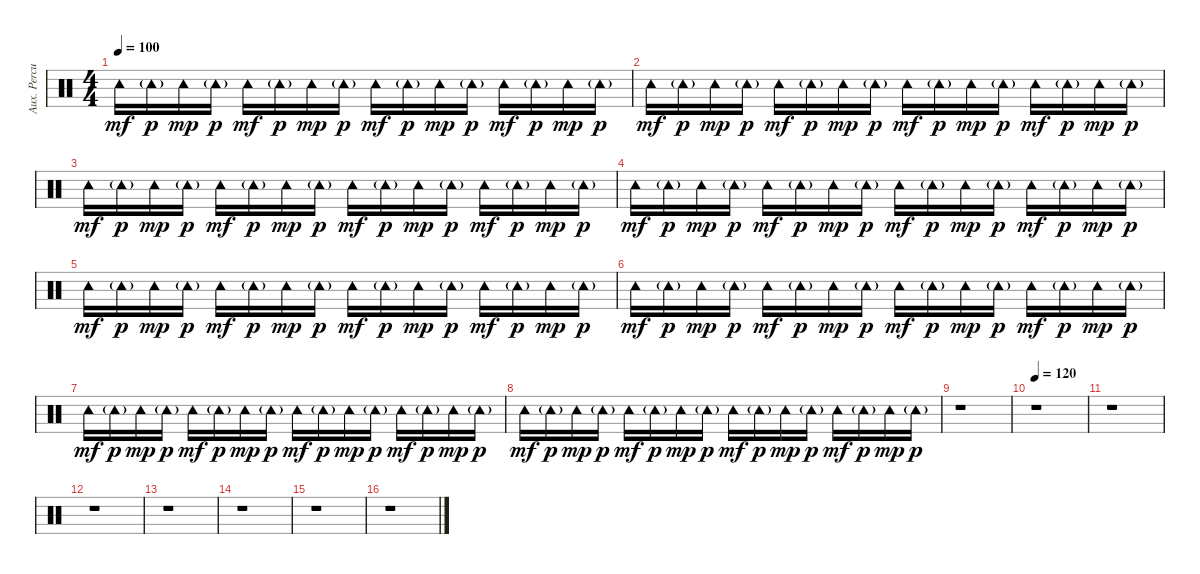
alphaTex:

\track ("Aux. Percussion" "Aux. Percu") {instrument percussion}
\staff {score}
\articulation defaults
\ts (4 4)
\tempo 100
\clef neutral
\ks c "Tambourine (hit)".16{dy mf} "Tambourine (hit)"{g}.16{dy p} "Tambourine (hit)".16{dy mp} "Tambourine (hit)"{g}.16{dy p} "Tambourine (hit)".16{dy mf} "Tambourine (hit)"{g}.16{dy p} "Tambourine (hit)".16{dy mp} "Tambourine (hit)"{g}.16{dy p} "Tambourine (hit)".16{dy mf} "Tambourine (hit)"{g}.16{dy p} "Tambourine (hit)".16{dy mp} "Tambourine (hit)"{g}.16{dy p} "Tambourine (hit)".16{dy mf} "Tambourine (hit)"{g}.16{dy p} "Tambourine (hit)".16{dy mp} "Tambourine (hit)"{g}.16{dy p}
|
"Tambourine (hit)".16{dy mf} "Tambourine (hit)"{g}.16{dy p} "Tambourine (hit)".16{dy mp} "Tambourine (hit)"{g}.16{dy p} "Tambourine (hit)".16{dy mf} "Tambourine (hit)"{g}.16{dy p} "Tambourine (hit)".16{dy mp} "Tambourine (hit)"{g}.16{dy p} "Tambourine (hit)".16{dy mf} "Tambourine (hit)"{g}.16{dy p} "Tambourine (hit)".16{dy mp} "Tambourine (hit)"{g}.16{dy p} "Tambourine (hit)".16{dy mf} "Tambourine (hit)"{g}.16{dy p} "Tambourine (hit)".16{dy mp} "Tambourine (hit)"{g}.16{dy p} |
"Tambourine (hit)".16{dy mf} "Tambourine (hit)"{g}.16{dy p} "Tambourine (hit)".16{dy mp} "Tambourine (hit)"{g}.16{dy p} "Tambourine (hit)".16{dy mf} "Tambourine (hit)"{g}.16{dy p} "Tambourine (hit)".16{dy mp} "Tambourine (hit)"{g}.16{dy p} "Tambourine (hit)".16{dy mf} "Tambourine (hit)"{g}.16{dy p} "Tambourine (hit)".16{dy mp} "Tambourine (hit)"{g}.16{dy p} "Tambourine (hit)".16{dy mf} "Tambourine (hit)"{g}.16{dy p} "Tambourine (hit)".16{dy mp} "Tambourine (hit)"{g}.16{dy p} |
"Tambourine (hit)".16{dy mf} "Tambourine (hit)"{g}.16{dy p} "Tambourine (hit)".16{dy mp} "Tambourine (hit)"{g}.16{dy p} "Tambourine (hit)".16{dy mf} "Tambourine (hit)"{g}.16{dy p} "Tambourine (hit)".16{dy mp} "Tambourine (hit)"{g}.16{dy p} "Tambourine (hit)".16{dy mf} "Tambourine (hit)"{g}.16{dy p} "Tambourine (hit)".16{dy mp} "Tambourine (hit)"{g}.16{dy p} "Tambourine (hit)".16{dy mf} "Tambourine (hit)"{g}.16{dy p} "Tambourine (hit)".16{dy mp} "Tambourine (hit)"{g}.16{dy p} |
"Tambourine (hit)".16{dy mf} "Tambourine (hit)"{g}.16{dy p} "Tambourine (hit)".16{dy mp} "Tambourine (hit)"{g}.16{dy p} "Tambourine (hit)".16{dy mf} "Tambourine (hit)"{g}.16{dy p} "Tambourine (hit)".16{dy mp} "Tambourine (hit)"{g}.16{dy p} "Tambourine (hit)".16{dy mf} "Tambourine (hit)"{g}.16{dy p} "Tambourine (hit)".16{dy mp} "Tambourine (hit)"{g}.16{dy p} "Tambourine (hit)".16{dy mf} "Tambourine (hit)"{g}.16{dy p} "Tambourine (hit)".16{dy mp} "Tambourine (hit)"{g}.16{dy p} |
"Tambourine (hit)".16{dy mf} "Tambourine (hit)"{g}.16{dy p} "Tambourine (hit)".16{dy mp} "Tambourine (hit)"{g}.16{dy p} "Tambourine (hit)".16{dy mf} "Tambourine (hit)"{g}.16{dy p} "Tambourine (hit)".16{dy mp} "Tambourine (hit)"{g}.16{dy p} "Tambourine (hit)".16{dy mf} "Tambourine (hit)"{g}.16{dy p} "Tambourine (hit)".16{dy mp} "Tambourine (hit)"{g}.16{dy p} "Tambourine (hit)".16{dy mf} "Tambourine (hit)"{g}.16{dy p} "Tambourine (hit)".16{dy mp} "Tambourine (hit)"{g}.16{dy p} |
"Tambourine (hit)".16{dy mf} "Tambourine (hit)"{g}.16{dy p} "Tambourine (hit)".16{dy mp} "Tambourine (hit)"{g}.16{dy p} "Tambourine (hit)".16{dy mf} "Tambourine (hit)"{g}.16{dy p} "Tambourine (hit)".16{dy mp} "Tambourine (hit)"{g}.16{dy p} "Tambourine (hit)".16{dy mf} "Tambourine (hit)"{g}.16{dy p} "Tambourine (hit)".16{dy mp} "Tambourine (hit)"{g}.16{dy p} "Tambourine (hit)".16{dy mf} "Tambourine (hit)"{g}.16{dy p} "Tambourine (hit)".16{dy mp} "Tambourine (hit)"{g}.16{dy p} |
"Tambourine (hit)".16{dy mf} "Tambourine (hit)"{g}.16{dy p} "Tambourine (hit)".16{dy mp} "Tambourine (hit)"{g}.16{dy p} "Tambourine (hit)".16{dy mf} "Tambourine (hit)"{g}.16{dy p} "Tambourine (hit)".16{dy mp} "Tambourine (hit)"{g}.16{dy p} "Tambourine (hit)".16{dy mf} "Tambourine (hit)"{g}.16{dy p} "Tambourine (hit)".16{dy mp} "Tambourine (hit)"{g}.16{dy p} "Tambourine (hit)".16{dy mf} "Tambourine (hit)"{g}.16{dy p} "Tambourine (hit)".16{dy mp} "Tambourine (hit)"{g}.16{dy p} |
r.1 |
\tempo 120
r.1 |
r.1 |
r.1 |
r.1 |
r.1 |
r.1 |
r.1
